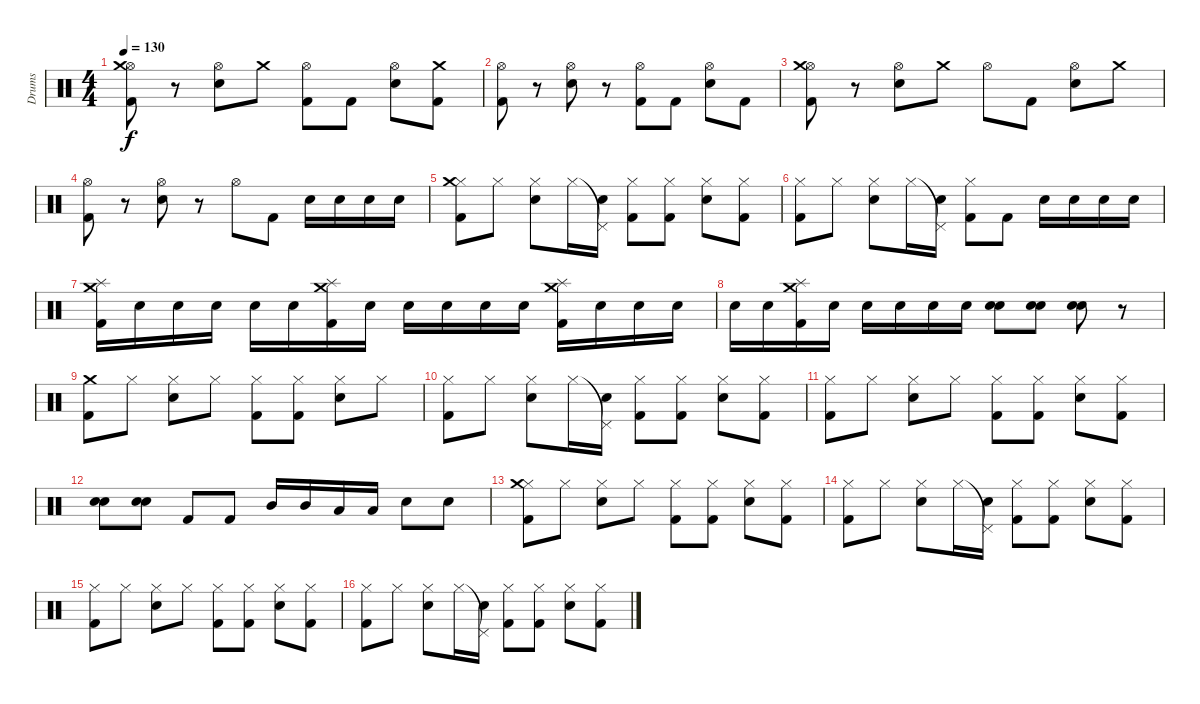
\track ("Drums" "Drums") {instrument percussion}
\staff {score}
\articulation defaults
\ts (4 4)
\tempo 130
\clef neutral
\ks c
("Hi-Hat (open)" "Kick (hit) 2" "Crash medium (hit)").8{dy f} r.8 ("Hi-Hat (open)" "Electric Snare (hit)").8 "Crash medium (hit)".8 ("Hi-Hat (open)" "Kick (hit) 2").8 "Kick (hit) 2".8 ("Hi-Hat (open)" "Electric Snare (hit)").8 ("Kick (hit) 2" "Crash medium (hit)").8 |
("Hi-Hat (open)" "Kick (hit) 2").8 r.8 ("Hi-Hat (open)" "Electric Snare (hit)").8 r.8 ("Hi-Hat (open)" "Kick (hit) 2").8 "Kick (hit) 2".8 ("Hi-Hat (open)" "Electric Snare (hit)").8 "Kick (hit) 2".8 |
("Hi-Hat (open)" "Kick (hit) 2" "Crash medium (hit)").8 r.8 ("Hi-Hat (open)" "Electric Snare (hit)").8 "Crash medium (hit)".8 "Hi-Hat (open)".8 "Kick (hit) 2".8 ("Hi-Hat (open)" "Electric Snare (hit)").8 "Crash medium (hit)".8 |
("Hi-Hat (open)" "Kick (hit) 2").8 r.8 ("Hi-Hat (open)" "Electric Snare (hit)").8 r.8 "Hi-Hat (open)".8 "Kick (hit) 2".8 "Electric Snare (hit)".16 "Electric Snare (hit)".16 "Electric Snare (hit)".16 "Electric Snare (hit)".16 |
("Hi-Hat (closed)" "Kick (hit) 2" "Crash medium (hit)").8 "Hi-Hat (closed)".8 ("Hi-Hat (closed)" "Electric Snare (hit)").8 "Hi-Hat (closed)".16 ("Pedal Hi-Hat (hit)"{t} "Electric Snare (hit)").16 ("Hi-Hat (closed)" "Kick (hit) 2").8 ("Hi-Hat (closed)" "Kick (hit) 2").8 ("Hi-Hat (closed)" "Electric Snare (hit)").8 ("Hi-Hat (closed)" "Kick (hit) 2").8 |
("Hi-Hat (closed)" "Kick (hit) 2").8 "Hi-Hat (closed)".8 ("Hi-Hat (closed)" "Electric Snare (hit)").8 "Hi-Hat (closed)".16 ("Pedal Hi-Hat (hit)"{t} "Electric Snare (hit)").16 ("Hi-Hat (closed)" "Kick (hit) 2").8 "Kick (hit) 2".8 "Electric Snare (hit)".16 "Electric Snare (hit)".16 "Electric Snare (hit)".16 "Electric Snare (hit)".16 |
("Crash medium (hit)" "Splash (hit)" "Kick (hit) 2").16 "Electric Snare (hit)".16 "Electric Snare (hit)".16 "Electric Snare (hit)".16 "Electric Snare (hit)".16 "Electric Snare (hit)".16 ("Crash medium (hit)" "Splash (hit)" "Kick (hit) 2").16 "Electric Snare (hit)".16 "Electric Snare (hit)".16 "Electric Snare (hit)".16 "Electric Snare (hit)".16 "Electric Snare (hit)".16 ("Crash medium (hit)" "Splash (hit)" "Kick (hit) 2").16 "Electric Snare (hit)".16 "Electric Snare (hit)".16 "Electric Snare (hit)".16 |
"Electric Snare (hit)".16 "Electric Snare (hit)".16 ("Crash medium (hit)" "Splash (hit)" "Kick (hit) 2").16 "Electric Snare (hit)".16 "Electric Snare (hit)".16 "Electric Snare (hit)".16 "Electric Snare (hit)".16 "Electric Snare (hit)".16 ("Electric Snare (hit)" "Electric Snare (hit)").8 ("Electric Snare (hit)" "Electric Snare (hit)").8 ("Electric Snare (hit)" "Electric Snare (hit)").8 r.8 |
("Crash medium (hit)" "Kick (hit) 2").8 "Hi-Hat (closed)".8 ("Hi-Hat (closed)" "Electric Snare (hit)").8 "Hi-Hat (closed)".8 ("Hi-Hat (closed)" "Kick (hit) 2").8 ("Hi-Hat (closed)" "Kick (hit) 2").8 ("Hi-Hat (closed)" "Electric Snare (hit)").8 "Hi-Hat (closed)".8 |
("Hi-Hat (closed)" "Kick (hit) 2").8 "Hi-Hat (closed)".8 ("Hi-Hat (closed)" "Electric Snare (hit)").8 "Hi-Hat (closed)".16 ("Pedal Hi-Hat (hit)"{t} "Electric Snare (hit)").16 ("Hi-Hat (closed)" "Kick (hit) 2").8 ("Hi-Hat (closed)" "Kick (hit) 2").8 ("Hi-Hat (closed)" "Electric Snare (hit)").8 ("Hi-Hat (closed)" "Kick (hit) 2").8 |
("Hi-Hat (closed)" "Kick (hit) 2").8 "Hi-Hat (closed)".8 ("Hi-Hat (closed)" "Electric Snare (hit)").8 "Hi-Hat (closed)".8 ("Hi-Hat (closed)" "Kick (hit) 2").8 ("Hi-Hat (closed)" "Kick (hit) 2").8 ("Hi-Hat (closed)" "Electric Snare (hit)").8 ("Hi-Hat (closed)" "Kick (hit) 2").8 |
("Electric Snare (hit)" "Electric Snare (hit)").8 ("Electric Snare (hit)" "Electric Snare (hit)").8 "Kick (hit) 2".8 "Kick (hit) 2".8 "Mid Tom (hit)".16 "Mid Tom (hit)".16 "Low Tom (hit)".16 "Low Tom (hit)".16 "Electric Snare (hit)".8 "Electric Snare (hit)".8 |
("Hi-Hat (closed)" "Kick (hit) 2" "Crash medium (hit)").8 "Hi-Hat (closed)".8 ("Hi-Hat (closed)" "Electric Snare (hit)").8 "Hi-Hat (closed)".8 ("Hi-Hat (closed)" "Kick (hit) 2").8 ("Hi-Hat (closed)" "Kick (hit) 2").8 ("Hi-Hat (closed)" "Electric Snare (hit)").8 ("Hi-Hat (closed)" "Kick (hit) 2").8 |
("Hi-Hat (closed)" "Kick (hit) 2").8 "Hi-Hat (closed)".8 ("Hi-Hat (closed)" "Electric Snare (hit)").8 "Hi-Hat (closed)".16 ("Pedal Hi-Hat (hit)"{t} "Electric Snare (hit)").16 ("Hi-Hat (closed)" "Kick (hit) 2").8 ("Hi-Hat (closed)" "Kick (hit) 2").8 ("Hi-Hat (closed)" "Electric Snare (hit)").8 ("Hi-Hat (closed)" "Kick (hit) 2").8 |
("Hi-Hat (closed)" "Kick (hit) 2").8 "Hi-Hat (closed)".8 ("Hi-Hat (closed)" "Electric Snare (hit)").8 "Hi-Hat (closed)".8 ("Hi-Hat (closed)" "Kick (hit) 2").8 ("Hi-Hat (closed)" "Kick (hit) 2").8 ("Hi-Hat (closed)" "Electric Snare (hit)").8 ("Hi-Hat (closed)" "Kick (hit) 2").8 |
("Hi-Hat (closed)" "Kick (hit) 2").8 "Hi-Hat (closed)".8 ("Hi-Hat (closed)" "Electric Snare (hit)").8 "Hi-Hat (closed)".16 ("Pedal Hi-Hat (hit)"{t} "Electric Snare (hit)").16 ("Hi-Hat (closed)" "Kick (hit) 2").8 ("Hi-Hat (closed)" "Kick (hit) 2").8 ("Hi-Hat (closed)" "Electric Snare (hit)").8 ("Hi-Hat (closed)" "Kick (hit) 2").8
